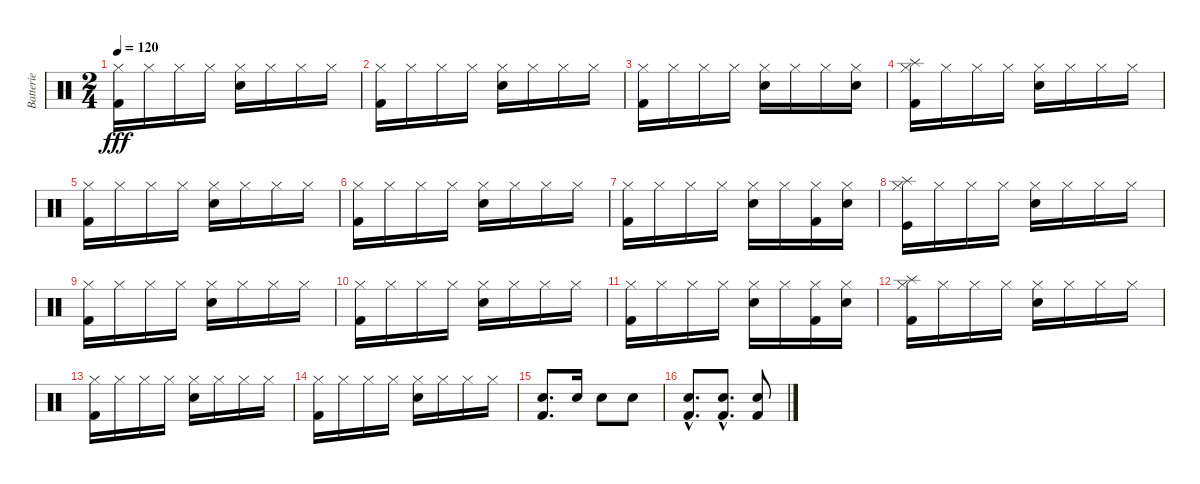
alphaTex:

\track ("Batterie" "Batterie") {instrument percussion}
\staff {score}
\articulation defaults
\ts (2 4)
\tempo 120
\clef neutral
\ks c
("Kick (hit) 2" "Hi-Hat (closed)").16{dy fff} "Hi-Hat (closed)".16 "Hi-Hat (closed)".16 "Hi-Hat (closed)".16 ("Hi-Hat (closed)" "Electric Snare (hit)").16 "Hi-Hat (closed)".16 "Hi-Hat (closed)".16 "Hi-Hat (closed)".16 |
("Kick (hit) 2" "Hi-Hat (closed)").16 "Hi-Hat (closed)".16 "Hi-Hat (closed)".16 "Hi-Hat (closed)".16 ("Hi-Hat (closed)" "Electric Snare (hit)").16 "Hi-Hat (closed)".16 "Hi-Hat (closed)".16 "Hi-Hat (closed)".16 |
("Kick (hit) 2" "Hi-Hat (closed)").16 "Hi-Hat (closed)".16 "Hi-Hat (closed)".16 "Hi-Hat (closed)".16 ("Electric Snare (hit)" "Hi-Hat (closed)").16 "Hi-Hat (closed)".16 "Hi-Hat (closed)".16 ("Electric Snare (hit)" "Hi-Hat (closed)").16 |
("Kick (hit) 2" "Hi-Hat (closed)" "Splash (hit)").16 "Hi-Hat (closed)".16 "Hi-Hat (closed)".16 "Hi-Hat (closed)".16 ("Hi-Hat (closed)" "Electric Snare (hit)").16 "Hi-Hat (closed)".16 "Hi-Hat (closed)".16 "Hi-Hat (closed)".16 |
("Kick (hit) 2" "Hi-Hat (closed)").16 "Hi-Hat (closed)".16 "Hi-Hat (closed)".16 "Hi-Hat (closed)".16 ("Hi-Hat (closed)" "Electric Snare (hit)").16 "Hi-Hat (closed)".16 "Hi-Hat (closed)".16 "Hi-Hat (closed)".16 |
("Kick (hit) 2" "Hi-Hat (closed)").16 "Hi-Hat (closed)".16 "Hi-Hat (closed)".16 "Hi-Hat (closed)".16 ("Hi-Hat (closed)" "Electric Snare (hit)").16 "Hi-Hat (closed)".16 "Hi-Hat (closed)".16 "Hi-Hat (closed)".16 |
("Kick (hit) 2" "Hi-Hat (closed)").16 "Hi-Hat (closed)".16 "Hi-Hat (closed)".16 "Hi-Hat (closed)".16 ("Electric Snare (hit)" "Hi-Hat (closed)").16 "Hi-Hat (closed)".16 ("Kick (hit) 2" "Hi-Hat (closed)").16 ("Electric Snare (hit)" "Hi-Hat (closed)").16 |
("Hi-Hat (closed)" "Kick (hit)" "Splash (hit)").16 "Hi-Hat (closed)".16 "Hi-Hat (closed)".16 "Hi-Hat (closed)".16 ("Hi-Hat (closed)" "Electric Snare (hit)").16 "Hi-Hat (closed)".16 "Hi-Hat (closed)".16 "Hi-Hat (closed)".16 |
("Kick (hit) 2" "Hi-Hat (closed)").16 "Hi-Hat (closed)".16 "Hi-Hat (closed)".16 "Hi-Hat (closed)".16 ("Hi-Hat (closed)" "Electric Snare (hit)").16 "Hi-Hat (closed)".16 "Hi-Hat (closed)".16 "Hi-Hat (closed)".16 |
("Kick (hit) 2" "Hi-Hat (closed)").16 "Hi-Hat (closed)".16 "Hi-Hat (closed)".16 "Hi-Hat (closed)".16 ("Hi-Hat (closed)" "Electric Snare (hit)").16 "Hi-Hat (closed)".16 "Hi-Hat (closed)".16 "Hi-Hat (closed)".16 |
("Kick (hit) 2" "Hi-Hat (closed)").16 "Hi-Hat (closed)".16 "Hi-Hat (closed)".16 "Hi-Hat (closed)".16 ("Electric Snare (hit)" "Hi-Hat (closed)").16 "Hi-Hat (closed)".16 ("Kick (hit) 2" "Hi-Hat (closed)").16 ("Electric Snare (hit)" "Hi-Hat (closed)").16 |
("Kick (hit) 2" "Hi-Hat (closed)" "Splash (hit)").16 "Hi-Hat (closed)".16 "Hi-Hat (closed)".16 "Hi-Hat (closed)".16 ("Hi-Hat (closed)" "Electric Snare (hit)").16 "Hi-Hat (closed)".16 "Hi-Hat (closed)".16 "Hi-Hat (closed)".16 |
("Kick (hit) 2" "Hi-Hat (closed)").16 "Hi-Hat (closed)".16 "Hi-Hat (closed)".16 "Hi-Hat (closed)".16 ("Hi-Hat (closed)" "Electric Snare (hit)").16 "Hi-Hat (closed)".16 "Hi-Hat (closed)".16 "Hi-Hat (closed)".16 |
("Kick (hit) 2" "Hi-Hat (closed)").16 "Hi-Hat (closed)".16 "Hi-Hat (closed)".16 "Hi-Hat (closed)".16 ("Hi-Hat (closed)" "Electric Snare (hit)").16 "Hi-Hat (closed)".16 "Hi-Hat (closed)".16 "Hi-Hat (closed)".16 |
("Kick (hit) 2" "Electric Snare (hit)").8{d} "Electric Snare (hit)".16 "Electric Snare (hit)".8 "Electric Snare (hit)".8 |
("Kick (hit) 2"{hac} "Electric Snare (hit)"{hac}).8{d} ("Kick (hit) 2"{hac} "Electric Snare (hit)"{hac}).8{d} ("Kick (hit) 2" "Electric Snare (hit)").8
